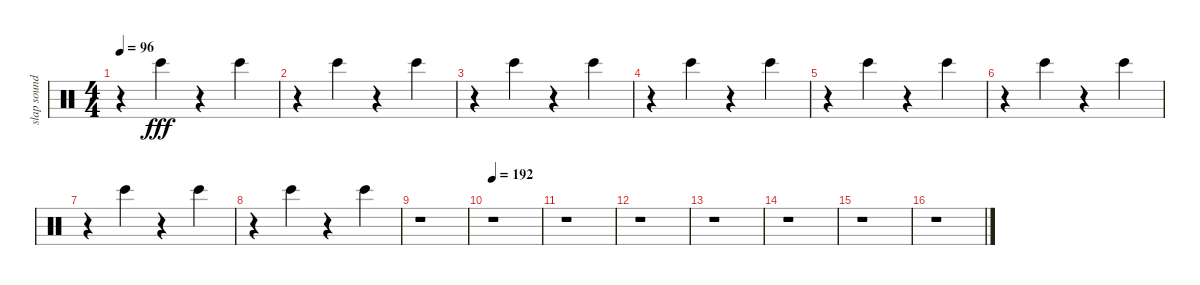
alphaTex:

\track ("slap sound" "slap sound") {instrument percussion}
\staff {score}
\articulation defaults
\ts (4 4)
\tempo 96
\clef neutral
\ks c
r.4{dy fff} "Bongo High (hit)".4 r.4 "Bongo High (hit)".4 |
r.4 "Bongo High (hit)".4 r.4 "Bongo High (hit)".4 |
r.4 "Bongo High (hit)".4 r.4 "Bongo High (hit)".4 |
r.4 "Bongo High (hit)".4 r.4 "Bongo High (hit)".4 |
r.4 "Bongo High (hit)".4 r.4 "Bongo High (hit)".4 |
r.4 "Bongo High (hit)".4 r.4 "Bongo High (hit)".4 |
r.4 "Bongo High (hit)".4 r.4 "Bongo High (hit)".4 |
r.4 "Bongo High (hit)".4 r.4 "Bongo High (hit)".4 |
r.1 |
\tempo 192
r.1 |
r.1 |
r.1 |
r.1 |
r.1 |
r.1 |
r.1
